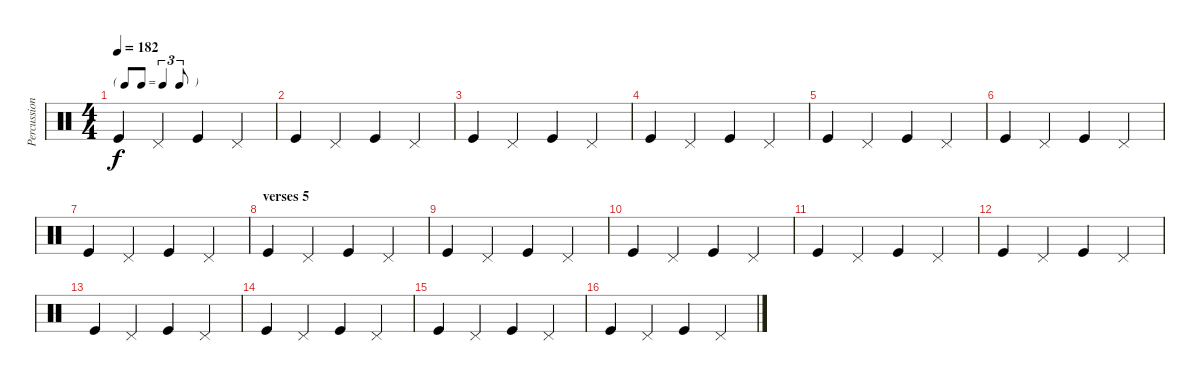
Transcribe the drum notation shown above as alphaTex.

\track ("Percussions" "Percussion") {instrument percussion}
\staff {score}
\articulation defaults
\ts (4 4)
\tf triplet8th
\tempo 182
\clef neutral
\ks c "Kick (hit)".4{dy f} "Pedal Hi-Hat (hit)".4 "Kick (hit)".4 "Pedal Hi-Hat (hit)".4
|
"Kick (hit)".4 "Pedal Hi-Hat (hit)".4 "Kick (hit)".4 "Pedal Hi-Hat (hit)".4 |
"Kick (hit)".4 "Pedal Hi-Hat (hit)".4 "Kick (hit)".4 "Pedal Hi-Hat (hit)".4 |
"Kick (hit)".4 "Pedal Hi-Hat (hit)".4 "Kick (hit)".4 "Pedal Hi-Hat (hit)".4 |
"Kick (hit)".4 "Pedal Hi-Hat (hit)".4 "Kick (hit)".4 "Pedal Hi-Hat (hit)".4 |
"Kick (hit)".4 "Pedal Hi-Hat (hit)".4 "Kick (hit)".4 "Pedal Hi-Hat (hit)".4 |
"Kick (hit)".4 "Pedal Hi-Hat (hit)".4 "Kick (hit)".4 "Pedal Hi-Hat (hit)".4 |
\section ("" "verses 5")
"Kick (hit)".4 "Pedal Hi-Hat (hit)".4 "Kick (hit)".4 "Pedal Hi-Hat (hit)".4 |
"Kick (hit)".4 "Pedal Hi-Hat (hit)".4 "Kick (hit)".4 "Pedal Hi-Hat (hit)".4 |
"Kick (hit)".4 "Pedal Hi-Hat (hit)".4 "Kick (hit)".4 "Pedal Hi-Hat (hit)".4 |
"Kick (hit)".4 "Pedal Hi-Hat (hit)".4 "Kick (hit)".4 "Pedal Hi-Hat (hit)".4 |
"Kick (hit)".4 "Pedal Hi-Hat (hit)".4 "Kick (hit)".4 "Pedal Hi-Hat (hit)".4 |
"Kick (hit)".4 "Pedal Hi-Hat (hit)".4 "Kick (hit)".4 "Pedal Hi-Hat (hit)".4 |
"Kick (hit)".4 "Pedal Hi-Hat (hit)".4 "Kick (hit)".4 "Pedal Hi-Hat (hit)".4 |
"Kick (hit)".4 "Pedal Hi-Hat (hit)".4 "Kick (hit)".4 "Pedal Hi-Hat (hit)".4 |
"Kick (hit)".4 "Pedal Hi-Hat (hit)".4 "Kick (hit)".4 "Pedal Hi-Hat (hit)".4
